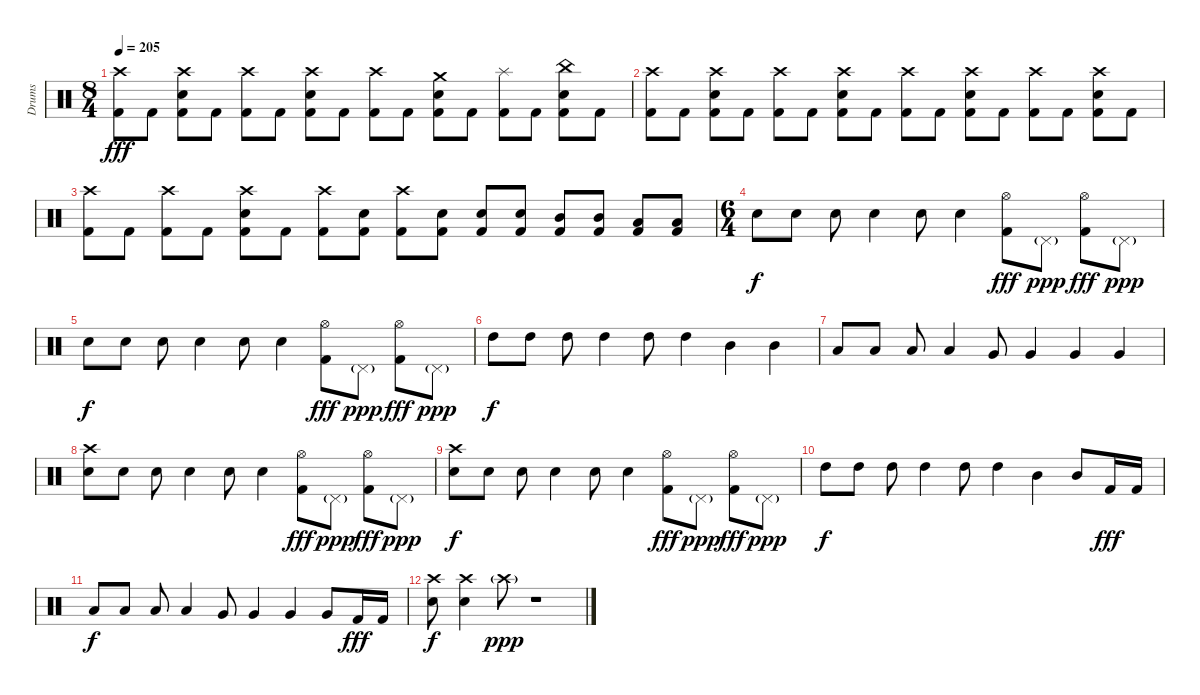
\track ("Drums" "Drums") {instrument percussion}
\staff {score}
\articulation defaults
\ts (8 4)
\tempo 205
\clef neutral
\ks c
("Crash high (hit)" "Kick (hit) 2").8{dy fff} "Kick (hit) 2".8 ("Crash high (hit)" "Snare (hit) 2" "Kick (hit) 2").8 "Kick (hit) 2".8 ("Crash high (hit)" "Kick (hit) 2").8 "Kick (hit) 2".8 ("Crash high (hit)" "Snare (hit) 2" "Kick (hit) 2").8 "Kick (hit) 2".8 ("Crash high (hit)" "Kick (hit) 2").8 "Kick (hit) 2".8 ("Crash medium (hit)" "Snare (hit) 2" "Kick (hit) 2").8 "Kick (hit) 2".8 ("Splash (hit)" "Kick (hit) 2").8 "Kick (hit) 2".8 ("China (hit)" "Snare (hit) 2" "Kick (hit) 2").8 "Kick (hit) 2".8 |
("Crash high (hit)" "Kick (hit) 2").8 "Kick (hit) 2".8 ("Crash high (hit)" "Snare (hit) 2" "Kick (hit) 2").8 "Kick (hit) 2".8 ("Crash high (hit)" "Kick (hit) 2").8 "Kick (hit) 2".8 ("Crash high (hit)" "Snare (hit) 2" "Kick (hit) 2").8 "Kick (hit) 2".8 ("Crash high (hit)" "Kick (hit) 2").8 "Kick (hit) 2".8 ("Crash high (hit)" "Snare (hit) 2" "Kick (hit) 2").8 "Kick (hit) 2".8 ("Crash high (hit)" "Kick (hit) 2").8 "Kick (hit) 2".8 ("Crash high (hit)" "Snare (hit) 2" "Kick (hit) 2").8 "Kick (hit) 2".8 |
("Crash high (hit)" "Kick (hit) 2").8 "Kick (hit) 2".8 ("Crash high (hit)" "Kick (hit) 2").8 "Kick (hit) 2".8 ("Crash high (hit)" "Snare (hit) 2" "Kick (hit) 2").8 "Kick (hit) 2".8 ("Crash high (hit)" "Kick (hit) 2").8 ("Snare (hit) 2" "Kick (hit) 2").8 ("Crash high (hit)" "Kick (hit) 2").8 ("Snare (hit) 2" "Kick (hit) 2").8 ("Snare (hit) 2" "Kick (hit) 2").8 ("Snare (hit) 2" "Kick (hit) 2").8 ("Mid Tom (hit)" "Kick (hit) 2").8 ("Mid Tom (hit)" "Kick (hit) 2").8 ("Low Tom (hit)" "Kick (hit) 2").8 ("Low Tom (hit)" "Kick (hit) 2").8 |
\ts (6 4)
"Snare (hit) 2".8{dy f} "Snare (hit) 2".8 "Snare (hit) 2".8 "Snare (hit) 2".4 "Snare (hit) 2".8 "Snare (hit) 2".4 ("Hi-Hat (open)" "Kick (hit) 2").8{dy fff} "Pedal Hi-Hat (hit)"{g}.8{dy ppp} ("Hi-Hat (open)" "Kick (hit) 2").8{dy fff} "Pedal Hi-Hat (hit)"{g}.8{dy ppp} |
"Snare (hit) 2".8{dy f} "Snare (hit) 2".8 "Snare (hit) 2".8 "Snare (hit) 2".4 "Snare (hit) 2".8 "Snare (hit) 2".4 ("Hi-Hat (open)" "Kick (hit) 2").8{dy fff} "Pedal Hi-Hat (hit)"{g}.8{dy ppp} ("Hi-Hat (open)" "Kick (hit) 2").8{dy fff} "Pedal Hi-Hat (hit)"{g}.8{dy ppp} |
"High Tom (hit)".8{dy f} "High Tom (hit)".8 "High Tom (hit)".8 "High Tom (hit)".4 "High Tom (hit)".8 "High Tom (hit)".4 "Mid Tom (hit)".4 "Mid Tom (hit)".4 |
"Low Tom (hit)".8 "Low Tom (hit)".8 "Low Tom (hit)".8 "Low Tom (hit)".4 "Very Low Tom (hit)".8 "Very Low Tom (hit)".4 "Very Low Tom (hit)".4 "Very Low Tom (hit)".4 |
("Crash high (hit)" "Snare (hit) 2").8 "Snare (hit) 2".8 "Snare (hit) 2".8 "Snare (hit) 2".4 "Snare (hit) 2".8 "Snare (hit) 2".4 ("Hi-Hat (open)" "Kick (hit) 2").8{dy fff} "Pedal Hi-Hat (hit)"{g}.8{dy ppp} ("Hi-Hat (open)" "Kick (hit) 2").8{dy fff} "Pedal Hi-Hat (hit)"{g}.8{dy ppp} |
("Crash high (hit)" "Snare (hit) 2").8{dy f} "Snare (hit) 2".8 "Snare (hit) 2".8 "Snare (hit) 2".4 "Snare (hit) 2".8 "Snare (hit) 2".4 ("Hi-Hat (open)" "Kick (hit) 2").8{dy fff} "Pedal Hi-Hat (hit)"{g}.8{dy ppp} ("Hi-Hat (open)" "Kick (hit) 2").8{dy fff} "Pedal Hi-Hat (hit)"{g}.8{dy ppp} |
"High Tom (hit)".8{dy f} "High Tom (hit)".8 "High Tom (hit)".8 "High Tom (hit)".4 "High Tom (hit)".8 "High Tom (hit)".4 "Mid Tom (hit)".4 "Mid Tom (hit)".8 "Kick (hit) 2".16{dy fff} "Kick (hit) 2".16 |
"Low Tom (hit)".8{dy f} "Low Tom (hit)".8 "Low Tom (hit)".8 "Low Tom (hit)".4 "Very Low Tom (hit)".8 "Very Low Tom (hit)".4 "Very Low Tom (hit)".4 "Very Low Tom (hit)".8 "Kick (hit) 2".16{dy fff} "Kick (hit) 2".16 |
("Crash high (hit)" "Snare (hit) 2").8{dy f} ("Crash high (hit)" "Snare (hit) 2").4 "Crash high (hit)"{g}.8{dy ppp} r.1
